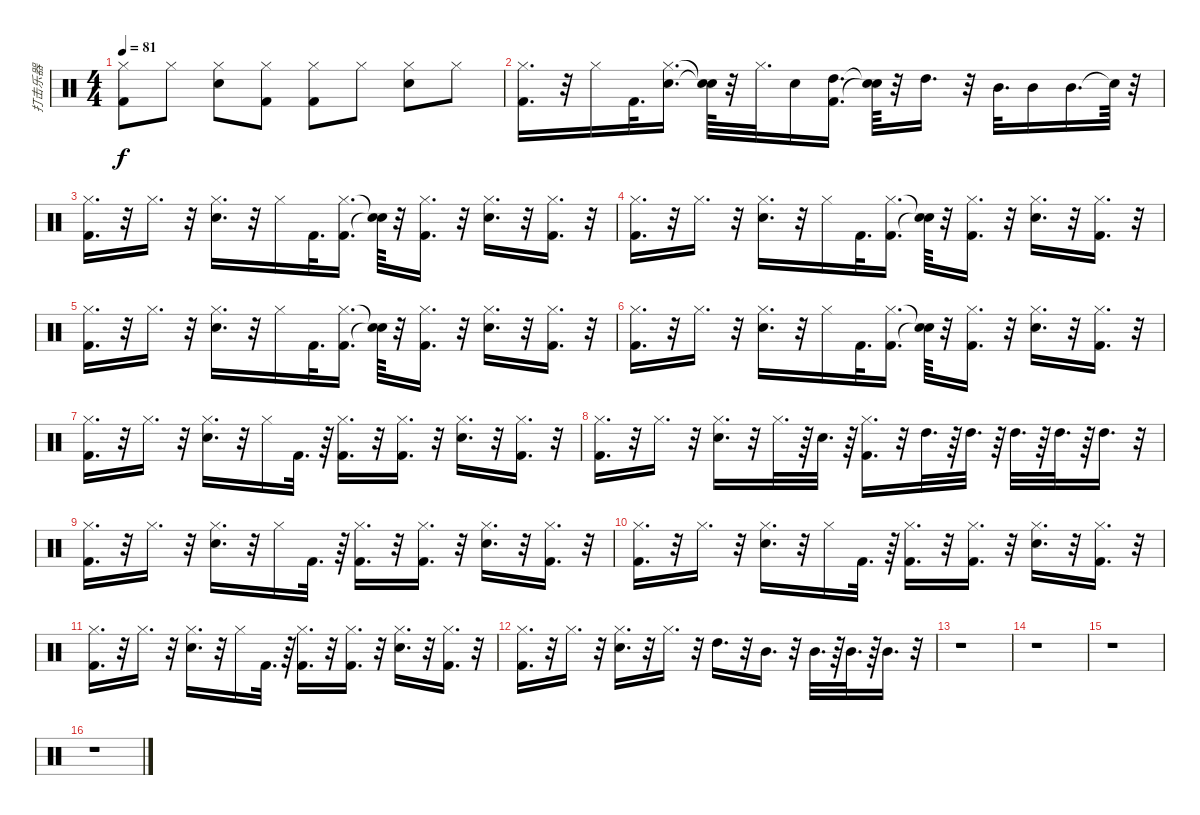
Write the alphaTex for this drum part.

\track ("打击乐器" "打击乐器") {instrument percussion}
\staff {score}
\articulation defaults
\ts (4 4)
\tempo 81
\clef neutral
\ks c
("Kick (hit) 2" "Hi-Hat (closed)").8{dy f} "Hi-Hat (closed)".8 ("Hi-Hat (closed)" "Snare (hit) 2").8 ("Hi-Hat (closed)" "Kick (hit) 2").8 ("Kick (hit) 2" "Hi-Hat (closed)").8 "Hi-Hat (closed)".8 ("Hi-Hat (closed)" "Snare (hit) 2").8 "Hi-Hat (closed)".8 |
("Hi-Hat (closed)" "Kick (hit) 2").16{d} r.32 "Hi-Hat (closed)".16 "Kick (hit) 2".32{d} ("Snare (hit) 2" "Hi-Hat (closed)").16{d} ("Snare (hit)"{t} "Snare (hit)"{t}).64 r.32 "Hi-Hat (closed)".32{d} "Snare (hit) 2".16 ("Kick (hit) 2" "High Tom (hit)").16{d} ("Snare (hit)"{t} "Snare (hit)"{t}).64 r.32 "High Tom (hit)".16{d} r.32 "Mid Tom (hit)".32{d} "Mid Tom (hit)".16 "Mid Tom (hit)".16{d} "Snare (hit)"{t}.64 r.32 |
("Kick (hit) 2" "Hi-Hat (closed)").16{d} r.32 "Hi-Hat (closed)".16{d} r.32 ("Hi-Hat (closed)" "Snare (hit) 2").16{d} r.32 "Hi-Hat (closed)".16 "Kick (hit) 2".32{d} ("Hi-Hat (closed)" "Kick (hit) 2").16{d} ("Snare (hit)"{t} "Snare (hit)"{t}).64 r.32 ("Hi-Hat (closed)" "Kick (hit) 2").16{d} r.32 ("Snare (hit) 2" "Hi-Hat (closed)").16{d} r.32 ("Kick (hit) 2" "Hi-Hat (closed)").16{d} r.32 |
("Kick (hit) 2" "Hi-Hat (closed)").16{d} r.32 "Hi-Hat (closed)".16{d} r.32 ("Snare (hit) 2" "Hi-Hat (closed)").16{d} r.32 "Hi-Hat (closed)".16 "Kick (hit) 2".32{d} ("Hi-Hat (closed)" "Kick (hit) 2").16{d} ("Snare (hit)"{t} "Snare (hit)"{t}).64 r.32 ("Hi-Hat (closed)" "Kick (hit) 2").16{d} r.32 ("Snare (hit) 2" "Hi-Hat (closed)").16{d} r.32 ("Hi-Hat (closed)" "Kick (hit) 2").16{d} r.32 |
("Kick (hit) 2" "Hi-Hat (closed)").16{d} r.32 "Hi-Hat (closed)".16{d} r.32 ("Snare (hit) 2" "Hi-Hat (closed)").16{d} r.32 "Hi-Hat (closed)".16 "Kick (hit) 2".32{d} ("Hi-Hat (closed)" "Kick (hit) 2").16{d} ("Snare (hit)"{t} "Snare (hit)"{t}).64 r.32 ("Hi-Hat (closed)" "Kick (hit) 2").16{d} r.32 ("Snare (hit) 2" "Hi-Hat (closed)").16{d} r.32 ("Kick (hit) 2" "Hi-Hat (closed)").16{d} r.32 |
("Hi-Hat (closed)" "Kick (hit) 2").16{d} r.32 "Hi-Hat (closed)".16{d} r.32 ("Snare (hit) 2" "Hi-Hat (closed)").16{d} r.32 "Hi-Hat (closed)".16 "Kick (hit) 2".32{d} ("Kick (hit) 2" "Hi-Hat (closed)").16{d} ("Snare (hit)"{t} "Snare (hit)"{t}).64 r.32 ("Hi-Hat (closed)" "Kick (hit) 2").16{d} r.32 ("Snare (hit) 2" "Hi-Hat (closed)").16{d} r.32 ("Kick (hit) 2" "Hi-Hat (closed)").16{d} r.32 |
("Kick (hit) 2" "Hi-Hat (closed)").16{d} r.32 "Hi-Hat (closed)".16{d} r.32 ("Hi-Hat (closed)" "Snare (hit) 2").16{d} r.32 "Hi-Hat (closed)".16 "Kick (hit) 2".32{d} r.64 ("Hi-Hat (closed)" "Kick (hit) 2").16{d} r.32 ("Hi-Hat (closed)" "Kick (hit) 2").16{d} r.32 ("Snare (hit) 2" "Hi-Hat (closed)").16{d} r.32 ("Kick (hit) 2" "Hi-Hat (closed)").16{d} r.32 |
("Kick (hit) 2" "Hi-Hat (closed)").16{d} r.32 "Hi-Hat (closed)".16{d} r.32 ("Snare (hit) 2" "Hi-Hat (closed)").16{d} r.32 "Hi-Hat (closed)".32{d} r.64 "Snare (hit) 2".32{d} r.64 ("Kick (hit) 2" "Hi-Hat (closed)").16{d} r.32 "High Tom (hit)".32{d} r.64 "High Tom (hit)".32{d} r.64 "High Tom (hit)".32{d} r.64 "High Tom (hit)".32{d} r.64 "High Tom (hit)".16{d} r.32 |
("Hi-Hat (closed)" "Kick (hit) 2").16{d} r.32 "Hi-Hat (closed)".16{d} r.32 ("Snare (hit) 2" "Hi-Hat (closed)").16{d} r.32 "Hi-Hat (closed)".16 "Kick (hit) 2".32{d} r.64 ("Hi-Hat (closed)" "Kick (hit) 2").16{d} r.32 ("Hi-Hat (closed)" "Kick (hit) 2").16{d} r.32 ("Snare (hit) 2" "Hi-Hat (closed)").16{d} r.32 ("Hi-Hat (closed)" "Kick (hit) 2").16{d} r.32 |
("Hi-Hat (closed)" "Kick (hit) 2").16{d} r.32 "Hi-Hat (closed)".16{d} r.32 ("Hi-Hat (closed)" "Snare (hit) 2").16{d} r.32 "Hi-Hat (closed)".16 "Kick (hit) 2".32{d} r.64 ("Hi-Hat (closed)" "Kick (hit) 2").16{d} r.32 ("Hi-Hat (closed)" "Kick (hit) 2").16{d} r.32 ("Hi-Hat (closed)" "Snare (hit) 2").16{d} r.32 ("Kick (hit) 2" "Hi-Hat (closed)").16{d} r.32 |
("Hi-Hat (closed)" "Kick (hit) 2").16{d} r.32 "Hi-Hat (closed)".16{d} r.32 ("Snare (hit) 2" "Hi-Hat (closed)").16{d} r.32 "Hi-Hat (closed)".16 "Kick (hit) 2".32{d} r.64 ("Hi-Hat (closed)" "Kick (hit) 2").16{d} r.32 ("Hi-Hat (closed)" "Kick (hit) 2").16{d} r.32 ("Hi-Hat (closed)" "Snare (hit) 2").16{d} r.32 ("Hi-Hat (closed)" "Kick (hit) 2").16{d} r.32 |
("Kick (hit) 2" "Hi-Hat (closed)").16{d} r.32 "Hi-Hat (closed)".16{d} r.32 ("Snare (hit) 2" "Hi-Hat (closed)").16{d} r.32 "Hi-Hat (closed)".16{d} r.32 "High Tom (hit)".16{d} r.32 "Mid Tom (hit)".16{d} r.32 "Mid Tom (hit)".32{d} r.64 "Mid Tom (hit)".32{d} r.64 "Mid Tom (hit)".16{d} r.32 |
r.1 |
r.1 |
r.1 |
r.1
